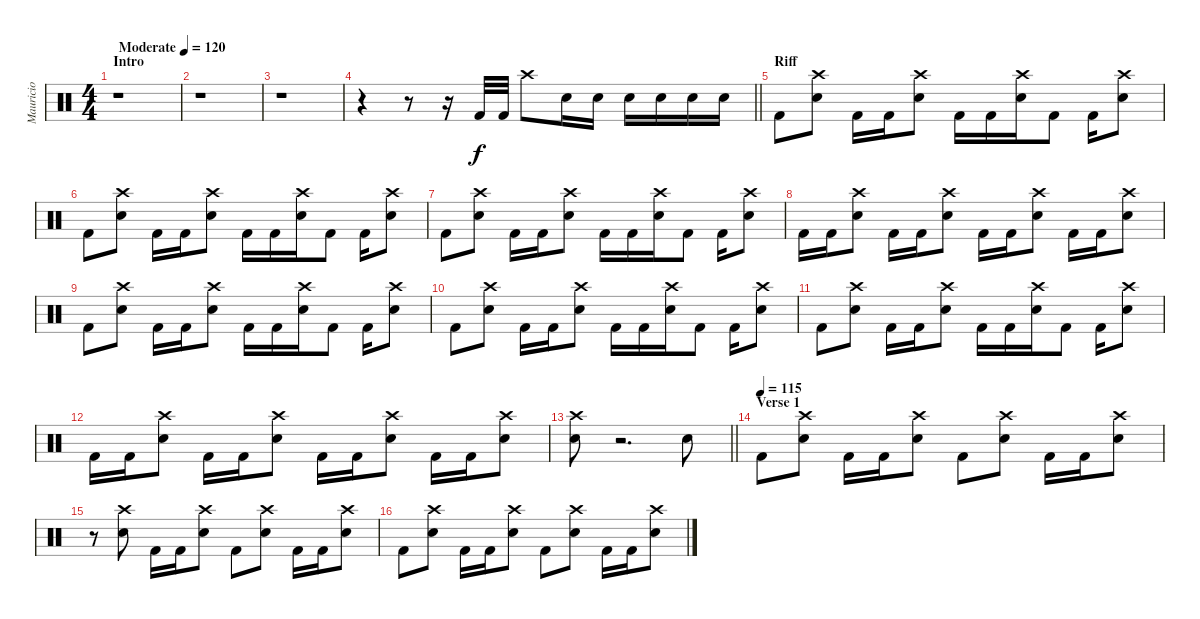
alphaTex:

\track ("Mauricio" "Mauricio") {instrument percussion}
\staff {score}
\articulation defaults
\ts (4 4)
\section ("" "Intro")
\tempo (120 "Moderate")
\clef neutral
\ks c
r.1{dy f} |
r.1 |
r.1 |
\barLineRight lightlight
r.4 r.8 r.16 "Kick (hit) 2".32 "Kick (hit) 2".32 "Crash high (hit)".8 "Electric Snare (hit)".16 "Electric Snare (hit)".16 "Electric Snare (hit)".16 "Electric Snare (hit)".16 "Electric Snare (hit)".16 "Electric Snare (hit)".16 |
\section ("" "Riff")
"Kick (hit) 2".8 ("Crash high (hit)" "Electric Snare (hit)").8 "Kick (hit) 2".16 "Kick (hit) 2".16 ("Crash high (hit)" "Electric Snare (hit)").8 "Kick (hit) 2".16 "Kick (hit) 2".16 ("Crash high (hit)" "Electric Snare (hit)").16 "Kick (hit) 2".8 "Kick (hit) 2".16 ("Crash high (hit)" "Electric Snare (hit)").8 |
"Kick (hit) 2".8 ("Crash high (hit)" "Electric Snare (hit)").8 "Kick (hit) 2".16 "Kick (hit) 2".16 ("Crash high (hit)" "Electric Snare (hit)").8 "Kick (hit) 2".16 "Kick (hit) 2".16 ("Crash high (hit)" "Electric Snare (hit)").16 "Kick (hit) 2".8 "Kick (hit) 2".16 ("Crash high (hit)" "Electric Snare (hit)").8 |
"Kick (hit) 2".8 ("Crash high (hit)" "Electric Snare (hit)").8 "Kick (hit) 2".16 "Kick (hit) 2".16 ("Crash high (hit)" "Electric Snare (hit)").8 "Kick (hit) 2".16 "Kick (hit) 2".16 ("Crash high (hit)" "Electric Snare (hit)").16 "Kick (hit) 2".8 "Kick (hit) 2".16 ("Crash high (hit)" "Electric Snare (hit)").8 |
"Kick (hit) 2".16 "Kick (hit) 2".16 ("Crash high (hit)" "Electric Snare (hit)").8 "Kick (hit) 2".16 "Kick (hit) 2".16 ("Crash high (hit)" "Electric Snare (hit)").8 "Kick (hit) 2".16 "Kick (hit) 2".16 ("Crash high (hit)" "Electric Snare (hit)").8 "Kick (hit) 2".16 "Kick (hit) 2".16 ("Crash high (hit)" "Electric Snare (hit)").8 |
"Kick (hit) 2".8 ("Crash high (hit)" "Electric Snare (hit)").8 "Kick (hit) 2".16 "Kick (hit) 2".16 ("Crash high (hit)" "Electric Snare (hit)").8 "Kick (hit) 2".16 "Kick (hit) 2".16 ("Crash high (hit)" "Electric Snare (hit)").16 "Kick (hit) 2".8 "Kick (hit) 2".16 ("Crash high (hit)" "Electric Snare (hit)").8 |
"Kick (hit) 2".8 ("Crash high (hit)" "Electric Snare (hit)").8 "Kick (hit) 2".16 "Kick (hit) 2".16 ("Crash high (hit)" "Electric Snare (hit)").8 "Kick (hit) 2".16 "Kick (hit) 2".16 ("Crash high (hit)" "Electric Snare (hit)").16 "Kick (hit) 2".8 "Kick (hit) 2".16 ("Crash high (hit)" "Electric Snare (hit)").8 |
"Kick (hit) 2".8 ("Crash high (hit)" "Electric Snare (hit)").8 "Kick (hit) 2".16 "Kick (hit) 2".16 ("Crash high (hit)" "Electric Snare (hit)").8 "Kick (hit) 2".16 "Kick (hit) 2".16 ("Crash high (hit)" "Electric Snare (hit)").16 "Kick (hit) 2".8 "Kick (hit) 2".16 ("Crash high (hit)" "Electric Snare (hit)").8 |
"Kick (hit) 2".16 "Kick (hit) 2".16 ("Crash high (hit)" "Electric Snare (hit)").8 "Kick (hit) 2".16 "Kick (hit) 2".16 ("Crash high (hit)" "Electric Snare (hit)").8 "Kick (hit) 2".16 "Kick (hit) 2".16 ("Crash high (hit)" "Electric Snare (hit)").8 "Kick (hit) 2".16 "Kick (hit) 2".16 ("Crash high (hit)" "Electric Snare (hit)").8 |
\barLineRight lightlight
("Crash high (hit)" "Electric Snare (hit)").8 r.2{d} "Electric Snare (hit)".8 |
\section ("" "Verse 1")
\tempo (115)
"Kick (hit) 2".8 ("Crash high (hit)" "Electric Snare (hit)").8 "Kick (hit) 2".16 "Kick (hit) 2".16 ("Crash high (hit)" "Electric Snare (hit)").8 "Kick (hit) 2".8 ("Crash high (hit)" "Electric Snare (hit)").8 "Kick (hit) 2".16 "Kick (hit) 2".16 ("Crash high (hit)" "Electric Snare (hit)").8 |
r.8 ("Crash high (hit)" "Electric Snare (hit)").8 "Kick (hit) 2".16 "Kick (hit) 2".16 ("Crash high (hit)" "Electric Snare (hit)").8 "Kick (hit) 2".8 ("Crash high (hit)" "Electric Snare (hit)").8 "Kick (hit) 2".16 "Kick (hit) 2".16 ("Crash high (hit)" "Electric Snare (hit)").8 |
"Kick (hit) 2".8 ("Crash high (hit)" "Electric Snare (hit)").8 "Kick (hit) 2".16 "Kick (hit) 2".16 ("Crash high (hit)" "Electric Snare (hit)").8 "Kick (hit) 2".8 ("Crash high (hit)" "Electric Snare (hit)").8 "Kick (hit) 2".16 "Kick (hit) 2".16 ("Crash high (hit)" "Electric Snare (hit)").8
